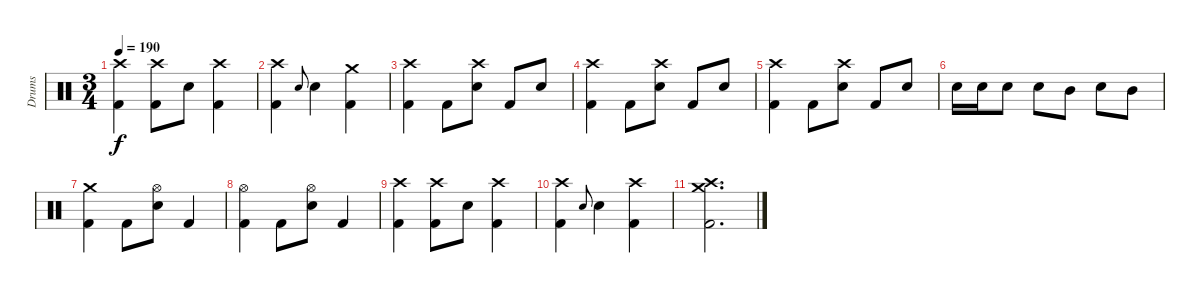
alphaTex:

\track ("Drums" "Drums") {instrument percussion}
\staff {score}
\articulation defaults
\ts (3 4)
\tempo 190
\clef neutral
\ks c
("Crash high (hit)" "Kick (hit) 2").4{dy f} ("Crash high (hit)" "Kick (hit) 2").8 "Electric Snare (hit)".8 ("Crash high (hit)" "Kick (hit) 2").4 |
("Crash high (hit)" "Kick (hit) 2").4 "Electric Snare (hit)".8{gr onbeat} "Electric Snare (hit)".4 ("Crash medium (hit)" "Kick (hit) 2").4 |
("Crash high (hit)" "Kick (hit) 2").4 "Kick (hit) 2".8 ("Crash high (hit)" "Electric Snare (hit)").8 "Kick (hit) 2".8 "Electric Snare (hit)".8 |
("Crash high (hit)" "Kick (hit) 2").4 "Kick (hit) 2".8 ("Crash high (hit)" "Electric Snare (hit)").8 "Kick (hit) 2".8 "Electric Snare (hit)".8 |
("Crash high (hit)" "Kick (hit) 2").4 "Kick (hit) 2".8 ("Crash high (hit)" "Electric Snare (hit)").8 "Kick (hit) 2".8 "Electric Snare (hit)".8 |
"Electric Snare (hit)".16 "Electric Snare (hit)".16 "Electric Snare (hit)".8 "Electric Snare (hit)".8 "Mid Tom (hit)".8 "Electric Snare (hit)".8 "Mid Tom (hit)".8 |
("Crash medium (hit)" "Kick (hit) 2").4 "Kick (hit) 2".8 ("Hi-Hat (open)" "Electric Snare (hit)").8 "Kick (hit) 2".4 |
("Hi-Hat (open)" "Kick (hit) 2").4 "Kick (hit) 2".8 ("Hi-Hat (open)" "Electric Snare (hit)").8 "Kick (hit) 2".4 |
("Crash high (hit)" "Kick (hit) 2").4 ("Crash high (hit)" "Kick (hit) 2").8 "Electric Snare (hit)".8 ("Crash high (hit)" "Kick (hit) 2").4 |
("Crash high (hit)" "Kick (hit) 2").4 "Electric Snare (hit)".8{gr onbeat} "Electric Snare (hit)".4 ("Crash high (hit)" "Kick (hit) 2").4 |
("Crash medium (hit)" "Crash high (hit)" "Kick (hit) 2").2{d}
